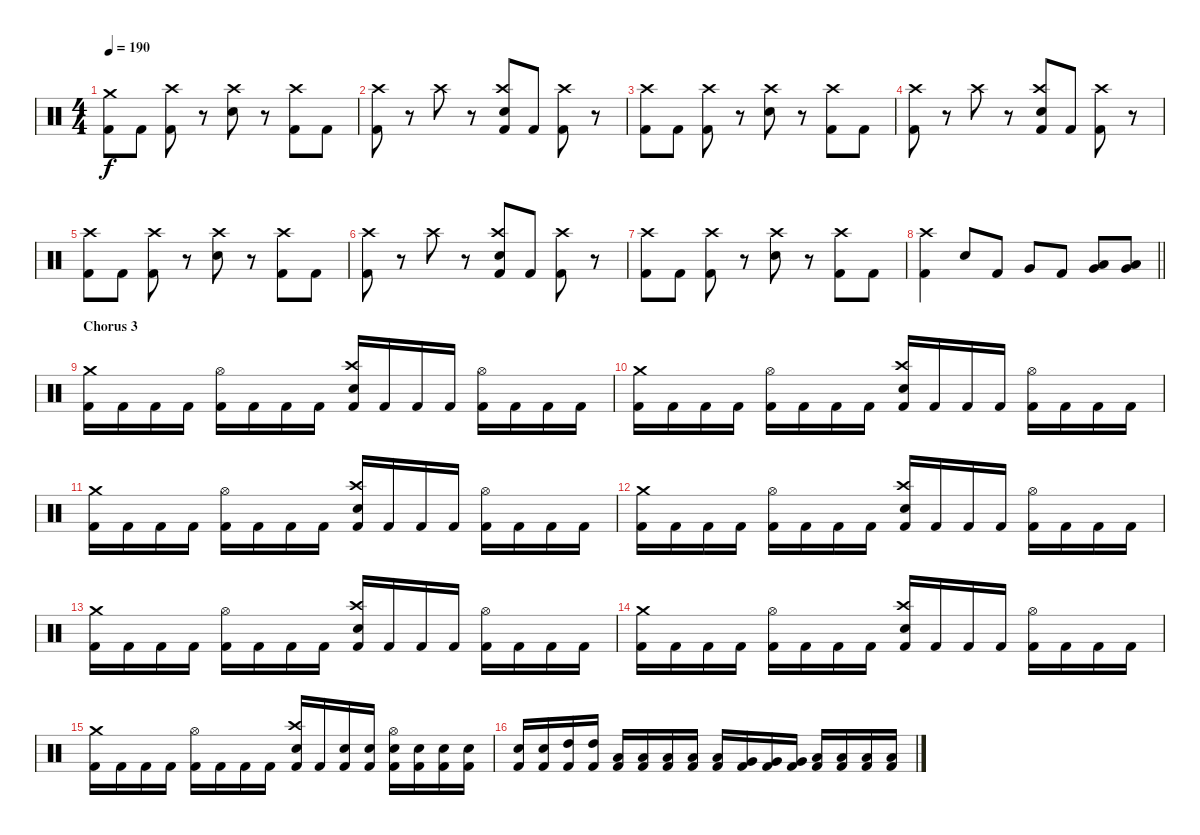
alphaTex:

\track "" {instrument percussion}
\staff {score}
\articulation defaults
\ts (4 4)
\tempo 190
\clef neutral
\ks c
("Crash medium (hit)" "Kick (hit) 2").8{dy f} "Kick (hit) 2".8 ("Crash high (hit)" "Kick (hit) 2").8 r.8 ("Crash high (hit)" "Electric Snare (hit)").8 r.8 ("Crash high (hit)" "Kick (hit) 2").8 "Kick (hit) 2".8 |
("Crash high (hit)" "Kick (hit) 2").8 r.8 "Crash high (hit)".8 r.8 ("Crash high (hit)" "Electric Snare (hit)" "Kick (hit) 2").8 "Kick (hit) 2".8 ("Crash high (hit)" "Kick (hit) 2").8 r.8 |
("Crash high (hit)" "Kick (hit) 2").8 "Kick (hit) 2".8 ("Crash high (hit)" "Kick (hit) 2").8 r.8 ("Crash high (hit)" "Electric Snare (hit)").8 r.8 ("Crash high (hit)" "Kick (hit) 2").8 "Kick (hit) 2".8 |
("Crash high (hit)" "Kick (hit) 2").8 r.8 "Crash high (hit)".8 r.8 ("Crash high (hit)" "Electric Snare (hit)" "Kick (hit) 2").8 "Kick (hit) 2".8 ("Crash high (hit)" "Kick (hit) 2").8 r.8 |
("Crash high (hit)" "Kick (hit) 2").8 "Kick (hit) 2".8 ("Crash high (hit)" "Kick (hit) 2").8 r.8 ("Crash high (hit)" "Electric Snare (hit)").8 r.8 ("Crash high (hit)" "Kick (hit) 2").8 "Kick (hit) 2".8 |
("Crash high (hit)" "Kick (hit) 2").8 r.8 "Crash high (hit)".8 r.8 ("Crash high (hit)" "Electric Snare (hit)" "Kick (hit) 2").8 "Kick (hit) 2".8 ("Crash high (hit)" "Kick (hit) 2").8 r.8 |
("Crash high (hit)" "Kick (hit) 2").8 "Kick (hit) 2".8 ("Crash high (hit)" "Kick (hit) 2").8 r.8 ("Crash high (hit)" "Electric Snare (hit)").8 r.8 ("Crash high (hit)" "Kick (hit) 2").8 "Kick (hit) 2".8 |
\barLineRight lightlight
("Crash high (hit)" "Kick (hit) 2").4 "Electric Snare (hit)".8 "Kick (hit) 2".8 "Very Low Tom (hit)".8 "Kick (hit) 2".8 ("Very Low Tom (hit)" "Low Floor Tom (hit)").8 ("Very Low Tom (hit)" "Low Floor Tom (hit)").8 |
\section ("" "Chorus 3")
("Crash medium (hit)" "Kick (hit) 2").16 "Kick (hit) 2".16 "Kick (hit) 2".16 "Kick (hit) 2".16 ("Hi-Hat (open)" "Kick (hit) 2").16 "Kick (hit) 2".16 "Kick (hit) 2".16 "Kick (hit) 2".16 ("Crash high (hit)" "Electric Snare (hit)" "Kick (hit) 2").16 "Kick (hit) 2".16 "Kick (hit) 2".16 "Kick (hit) 2".16 ("Hi-Hat (open)" "Kick (hit) 2").16 "Kick (hit) 2".16 "Kick (hit) 2".16 "Kick (hit) 2".16 |
("Crash medium (hit)" "Kick (hit) 2").16 "Kick (hit) 2".16 "Kick (hit) 2".16 "Kick (hit) 2".16 ("Hi-Hat (open)" "Kick (hit) 2").16 "Kick (hit) 2".16 "Kick (hit) 2".16 "Kick (hit) 2".16 ("Crash high (hit)" "Electric Snare (hit)" "Kick (hit) 2").16 "Kick (hit) 2".16 "Kick (hit) 2".16 "Kick (hit) 2".16 ("Hi-Hat (open)" "Kick (hit) 2").16 "Kick (hit) 2".16 "Kick (hit) 2".16 "Kick (hit) 2".16 |
("Crash medium (hit)" "Kick (hit) 2").16 "Kick (hit) 2".16 "Kick (hit) 2".16 "Kick (hit) 2".16 ("Hi-Hat (open)" "Kick (hit) 2").16 "Kick (hit) 2".16 "Kick (hit) 2".16 "Kick (hit) 2".16 ("Crash high (hit)" "Electric Snare (hit)" "Kick (hit) 2").16 "Kick (hit) 2".16 "Kick (hit) 2".16 "Kick (hit) 2".16 ("Hi-Hat (open)" "Kick (hit) 2").16 "Kick (hit) 2".16 "Kick (hit) 2".16 "Kick (hit) 2".16 |
("Crash medium (hit)" "Kick (hit) 2").16 "Kick (hit) 2".16 "Kick (hit) 2".16 "Kick (hit) 2".16 ("Hi-Hat (open)" "Kick (hit) 2").16 "Kick (hit) 2".16 "Kick (hit) 2".16 "Kick (hit) 2".16 ("Crash high (hit)" "Electric Snare (hit)" "Kick (hit) 2").16 "Kick (hit) 2".16 "Kick (hit) 2".16 "Kick (hit) 2".16 ("Hi-Hat (open)" "Kick (hit) 2").16 "Kick (hit) 2".16 "Kick (hit) 2".16 "Kick (hit) 2".16 |
("Crash medium (hit)" "Kick (hit) 2").16 "Kick (hit) 2".16 "Kick (hit) 2".16 "Kick (hit) 2".16 ("Hi-Hat (open)" "Kick (hit) 2").16 "Kick (hit) 2".16 "Kick (hit) 2".16 "Kick (hit) 2".16 ("Crash high (hit)" "Electric Snare (hit)" "Kick (hit) 2").16 "Kick (hit) 2".16 "Kick (hit) 2".16 "Kick (hit) 2".16 ("Hi-Hat (open)" "Kick (hit) 2").16 "Kick (hit) 2".16 "Kick (hit) 2".16 "Kick (hit) 2".16 |
("Crash medium (hit)" "Kick (hit) 2").16 "Kick (hit) 2".16 "Kick (hit) 2".16 "Kick (hit) 2".16 ("Hi-Hat (open)" "Kick (hit) 2").16 "Kick (hit) 2".16 "Kick (hit) 2".16 "Kick (hit) 2".16 ("Crash high (hit)" "Electric Snare (hit)" "Kick (hit) 2").16 "Kick (hit) 2".16 "Kick (hit) 2".16 "Kick (hit) 2".16 ("Hi-Hat (open)" "Kick (hit) 2").16 "Kick (hit) 2".16 "Kick (hit) 2".16 "Kick (hit) 2".16 |
("Crash medium (hit)" "Kick (hit) 2").16 "Kick (hit) 2".16 "Kick (hit) 2".16 "Kick (hit) 2".16 ("Hi-Hat (open)" "Kick (hit) 2").16 "Kick (hit) 2".16 "Kick (hit) 2".16 "Kick (hit) 2".16 ("Crash high (hit)" "Electric Snare (hit)" "Kick (hit) 2").16 "Kick (hit) 2".16 ("Electric Snare (hit)" "Kick (hit) 2").16 ("Electric Snare (hit)" "Kick (hit) 2").16 ("Hi-Hat (open)" "Electric Snare (hit)" "Kick (hit) 2").16 ("Electric Snare (hit)" "Kick (hit) 2").16 ("Electric Snare (hit)" "Kick (hit) 2").16 ("Electric Snare (hit)" "Kick (hit) 2").16 |
("Electric Snare (hit)" "Kick (hit) 2").16 ("Electric Snare (hit)" "Kick (hit) 2").16 ("High Tom (hit)" "Kick (hit) 2").16 ("High Tom (hit)" "Kick (hit) 2").16 ("Low Tom (hit)" "Kick (hit) 2").16 ("Low Tom (hit)" "Kick (hit) 2").16 ("Low Tom (hit)" "Kick (hit) 2").16 ("Low Tom (hit)" "Kick (hit) 2").16 ("Low Tom (hit)" "Kick (hit) 2").16 ("Very Low Tom (hit)" "Kick (hit) 2").16 ("Very Low Tom (hit)" "Kick (hit) 2").16 ("Very Low Tom (hit)" "Kick (hit) 2").16 ("Low Floor Tom (hit)" "Kick (hit) 2").16 ("Low Floor Tom (hit)" "Kick (hit) 2").16 ("Low Floor Tom (hit)" "Kick (hit) 2").16 ("Low Floor Tom (hit)" "Kick (hit) 2").16
